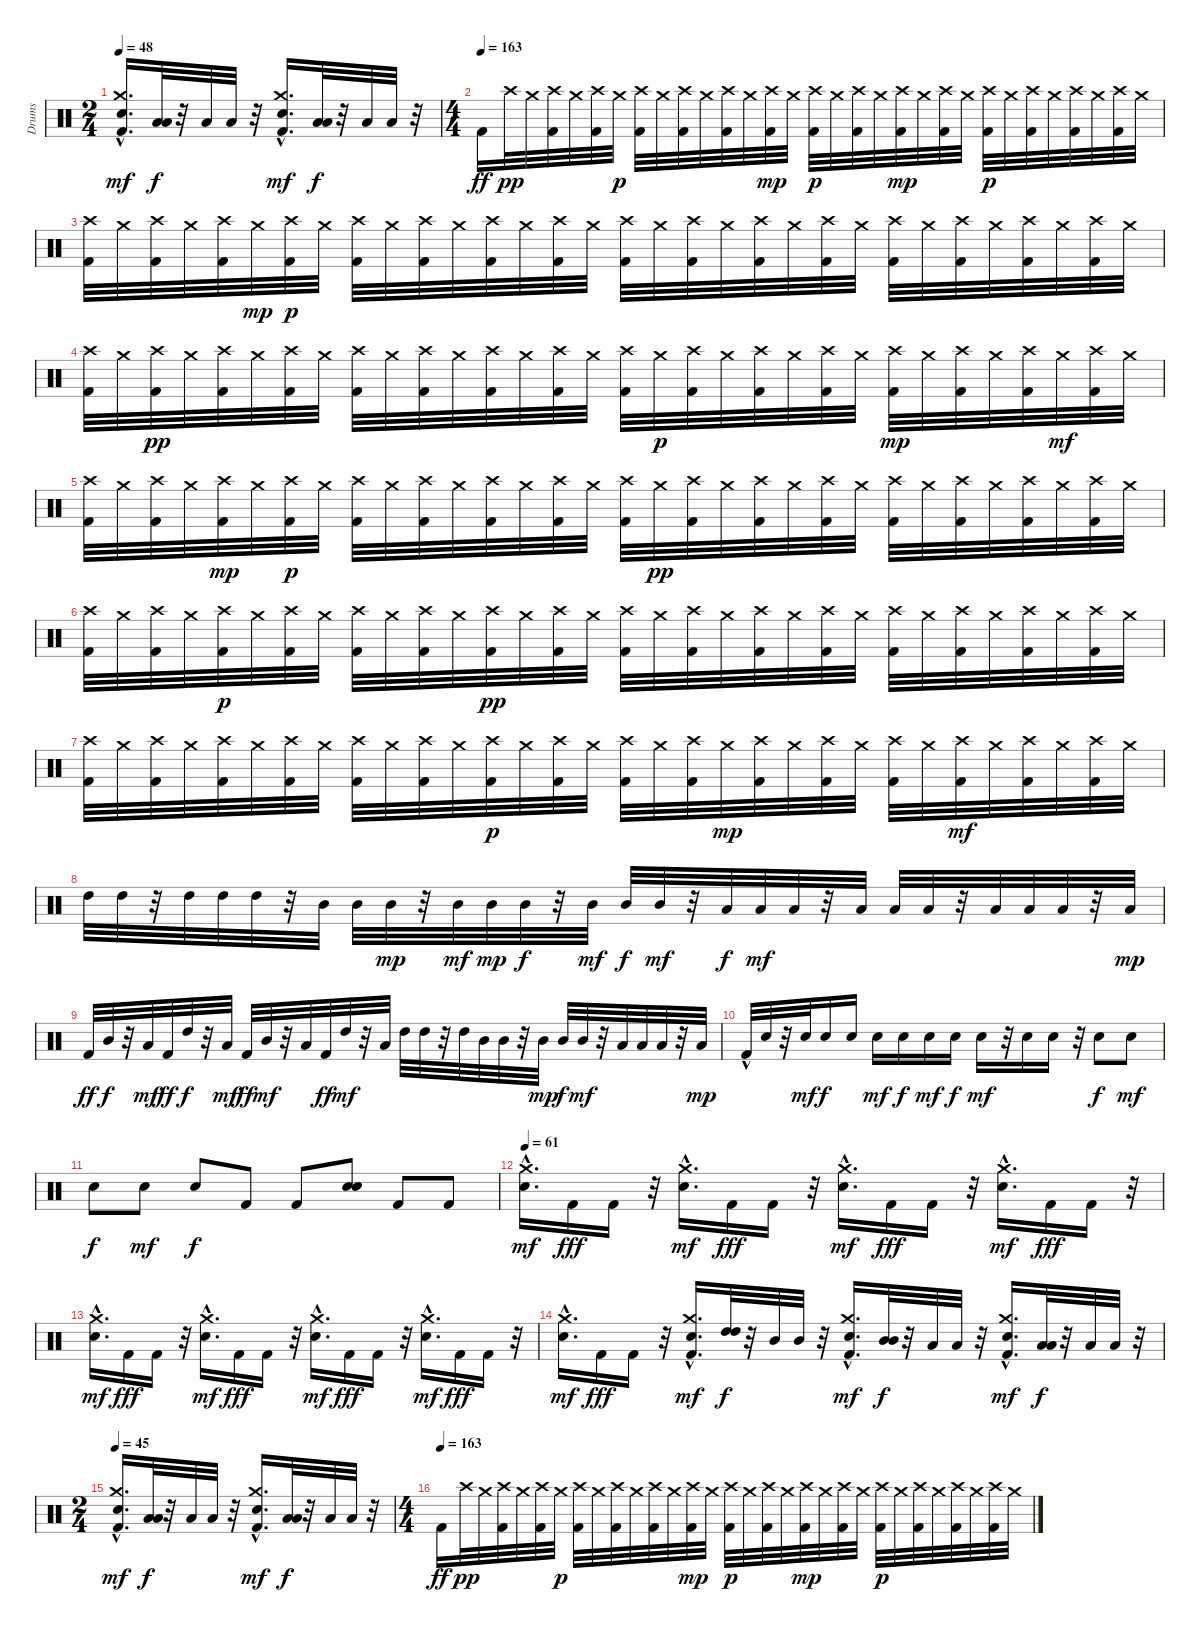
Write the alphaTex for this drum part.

\track ("Drums" "Drums") {instrument percussion}
\staff {score}
\articulation defaults
\ts (2 4)
\tempo 48
\clef neutral
\ks c
("Snare (hit) 2" "Crash medium (hit)" "Kick (hit) 2"{hac}).16{d dy mf} ("Low Tom (hit)" "Low Tom (hit)").32{dy f} r.32 "Low Tom (hit)".32 "Low Tom (hit)".32 r.32 ("Snare (hit) 2" "Crash medium (hit)" "Kick (hit) 2"{hac}).16{d dy mf} ("Low Tom (hit)" "Low Tom (hit)").32{dy f} r.32 "Low Tom (hit)".32 "Low Tom (hit)".32 r.32 |
\ts (4 4)
\tempo (163)
"Kick (hit) 2".16{dy ff} "Crash high (hit)".32{dy pp} "Crash medium (hit)".32 ("Crash high (hit)" "Kick (hit) 2").32 "Crash medium (hit)".32 ("Crash high (hit)" "Kick (hit) 2").32 "Crash medium (hit)".32{dy p} ("Crash high (hit)" "Kick (hit) 2").32 "Crash medium (hit)".32 ("Crash high (hit)" "Kick (hit) 2").32 "Crash medium (hit)".32 ("Crash high (hit)" "Kick (hit) 2").32 "Crash medium (hit)".32 ("Crash high (hit)" "Kick (hit) 2").32{dy mp} "Crash medium (hit)".32 ("Crash high (hit)" "Kick (hit) 2").32{dy p} "Crash medium (hit)".32 ("Crash high (hit)" "Kick (hit) 2").32 "Crash medium (hit)".32 ("Crash high (hit)" "Kick (hit) 2").32{dy mp} "Crash medium (hit)".32 ("Crash high (hit)" "Kick (hit) 2").32 "Crash medium (hit)".32 ("Crash high (hit)" "Kick (hit) 2").32{dy p} "Crash medium (hit)".32 ("Crash high (hit)" "Kick (hit) 2").32 "Crash medium (hit)".32 ("Crash high (hit)" "Kick (hit) 2").32 "Crash medium (hit)".32 ("Crash high (hit)" "Kick (hit) 2").32 "Crash medium (hit)".32 |
("Crash high (hit)" "Kick (hit) 2").32 "Crash medium (hit)".32 ("Crash high (hit)" "Kick (hit) 2").32 "Crash medium (hit)".32 ("Crash high (hit)" "Kick (hit) 2").32 "Crash medium (hit)".32{dy mp} ("Crash high (hit)" "Kick (hit) 2").32{dy p} "Crash medium (hit)".32 ("Crash high (hit)" "Kick (hit) 2").32 "Crash medium (hit)".32 ("Crash high (hit)" "Kick (hit) 2").32 "Crash medium (hit)".32 ("Crash high (hit)" "Kick (hit) 2").32 "Crash medium (hit)".32 ("Crash high (hit)" "Kick (hit) 2").32 "Crash medium (hit)".32 ("Crash high (hit)" "Kick (hit) 2").32 "Crash medium (hit)".32 ("Crash high (hit)" "Kick (hit) 2").32 "Crash medium (hit)".32 ("Crash high (hit)" "Kick (hit) 2").32 "Crash medium (hit)".32 ("Crash high (hit)" "Kick (hit) 2").32 "Crash medium (hit)".32 ("Crash high (hit)" "Kick (hit) 2").32 "Crash medium (hit)".32 ("Crash high (hit)" "Kick (hit) 2").32 "Crash medium (hit)".32 ("Crash high (hit)" "Kick (hit) 2").32 "Crash medium (hit)".32 ("Crash high (hit)" "Kick (hit) 2").32 "Crash medium (hit)".32 |
("Crash high (hit)" "Kick (hit) 2").32 "Crash medium (hit)".32 ("Crash high (hit)" "Kick (hit) 2").32{dy pp} "Crash medium (hit)".32 ("Crash high (hit)" "Kick (hit) 2").32 "Crash medium (hit)".32 ("Crash high (hit)" "Kick (hit) 2").32 "Crash medium (hit)".32 ("Crash high (hit)" "Kick (hit) 2").32 "Crash medium (hit)".32 ("Crash high (hit)" "Kick (hit) 2").32 "Crash medium (hit)".32 ("Crash high (hit)" "Kick (hit) 2").32 "Crash medium (hit)".32 ("Crash high (hit)" "Kick (hit) 2").32 "Crash medium (hit)".32 ("Crash high (hit)" "Kick (hit) 2").32 "Crash medium (hit)".32{dy p} ("Crash high (hit)" "Kick (hit) 2").32 "Crash medium (hit)".32 ("Crash high (hit)" "Kick (hit) 2").32 "Crash medium (hit)".32 ("Crash high (hit)" "Kick (hit) 2").32 "Crash medium (hit)".32 ("Crash high (hit)" "Kick (hit) 2").32{dy mp} "Crash medium (hit)".32 ("Crash high (hit)" "Kick (hit) 2").32 "Crash medium (hit)".32 ("Crash high (hit)" "Kick (hit) 2").32 "Crash medium (hit)".32{dy mf} ("Crash high (hit)" "Kick (hit) 2").32 "Crash medium (hit)".32 |
("Crash high (hit)" "Kick (hit) 2").32 "Crash medium (hit)".32 ("Crash high (hit)" "Kick (hit) 2").32 "Crash medium (hit)".32 ("Crash high (hit)" "Kick (hit) 2").32{dy mp} "Crash medium (hit)".32 ("Crash high (hit)" "Kick (hit) 2").32{dy p} "Crash medium (hit)".32 ("Crash high (hit)" "Kick (hit) 2").32 "Crash medium (hit)".32 ("Crash high (hit)" "Kick (hit) 2").32 "Crash medium (hit)".32 ("Crash high (hit)" "Kick (hit) 2").32 "Crash medium (hit)".32 ("Crash high (hit)" "Kick (hit) 2").32 "Crash medium (hit)".32 ("Crash high (hit)" "Kick (hit) 2").32 "Crash medium (hit)".32{dy pp} ("Crash high (hit)" "Kick (hit) 2").32 "Crash medium (hit)".32 ("Crash high (hit)" "Kick (hit) 2").32 "Crash medium (hit)".32 ("Crash high (hit)" "Kick (hit) 2").32 "Crash medium (hit)".32 ("Crash high (hit)" "Kick (hit) 2").32 "Crash medium (hit)".32 ("Crash high (hit)" "Kick (hit) 2").32 "Crash medium (hit)".32 ("Crash high (hit)" "Kick (hit) 2").32 "Crash medium (hit)".32 ("Crash high (hit)" "Kick (hit) 2").32 "Crash medium (hit)".32 |
("Crash high (hit)" "Kick (hit) 2").32 "Crash medium (hit)".32 ("Crash high (hit)" "Kick (hit) 2").32 "Crash medium (hit)".32 ("Crash high (hit)" "Kick (hit) 2").32{dy p} "Crash medium (hit)".32 ("Crash high (hit)" "Kick (hit) 2").32 "Crash medium (hit)".32 ("Crash high (hit)" "Kick (hit) 2").32 "Crash medium (hit)".32 ("Crash high (hit)" "Kick (hit) 2").32 "Crash medium (hit)".32 ("Crash high (hit)" "Kick (hit) 2").32{dy pp} "Crash medium (hit)".32 ("Crash high (hit)" "Kick (hit) 2").32 "Crash medium (hit)".32 ("Crash high (hit)" "Kick (hit) 2").32 "Crash medium (hit)".32 ("Crash high (hit)" "Kick (hit) 2").32 "Crash medium (hit)".32 ("Crash high (hit)" "Kick (hit) 2").32 "Crash medium (hit)".32 ("Crash high (hit)" "Kick (hit) 2").32 "Crash medium (hit)".32 ("Crash high (hit)" "Kick (hit) 2").32 "Crash medium (hit)".32 ("Crash high (hit)" "Kick (hit) 2").32 "Crash medium (hit)".32 ("Crash high (hit)" "Kick (hit) 2").32 "Crash medium (hit)".32 ("Crash high (hit)" "Kick (hit) 2").32 "Crash medium (hit)".32 |
("Crash high (hit)" "Kick (hit) 2").32 "Crash medium (hit)".32 ("Crash high (hit)" "Kick (hit) 2").32 "Crash medium (hit)".32 ("Crash high (hit)" "Kick (hit) 2").32 "Crash medium (hit)".32 ("Crash high (hit)" "Kick (hit) 2").32 "Crash medium (hit)".32 ("Crash high (hit)" "Kick (hit) 2").32 "Crash medium (hit)".32 ("Crash high (hit)" "Kick (hit) 2").32 "Crash medium (hit)".32 ("Crash high (hit)" "Kick (hit) 2").32{dy p} "Crash medium (hit)".32 ("Crash high (hit)" "Kick (hit) 2").32 "Crash medium (hit)".32 ("Crash high (hit)" "Kick (hit) 2").32 "Crash medium (hit)".32 ("Crash high (hit)" "Kick (hit) 2").32 "Crash medium (hit)".32{dy mp} ("Crash high (hit)" "Kick (hit) 2").32 "Crash medium (hit)".32 ("Crash high (hit)" "Kick (hit) 2").32 "Crash medium (hit)".32 ("Crash high (hit)" "Kick (hit) 2").32 "Crash medium (hit)".32 ("Crash high (hit)" "Kick (hit) 2").32{dy mf} "Crash medium (hit)".32 ("Crash high (hit)" "Kick (hit) 2").32 "Crash medium (hit)".32 ("Crash high (hit)" "Kick (hit) 2").32 "Crash medium (hit)".32 |
"High Tom (hit)".32 "High Tom (hit)".32 r.32 "High Tom (hit)".32 "High Tom (hit)".32 "High Tom (hit)".32 r.32 "Mid Tom (hit)".32 "Mid Tom (hit)".32 "Mid Tom (hit)".32{dy mp} r.32 "Mid Tom (hit)".32{dy mf} "Mid Tom (hit)".32{dy mp} "Mid Tom (hit)".32{dy f} r.32 "Mid Tom (hit)".32{dy mf} "Mid Tom (hit)".32{dy f} "Mid Tom (hit)".32{dy mf} r.32 "Low Tom (hit)".32{dy f} "Low Tom (hit)".32{dy mf} "Low Tom (hit)".32 r.32 "Low Tom (hit)".32 "Low Tom (hit)".32 "Low Tom (hit)".32 r.32 "Low Tom (hit)".32 "Low Tom (hit)".32 "Low Tom (hit)".32 r.32 "Low Tom (hit)".32{dy mp} |
"Kick (hit) 2".32{dy ff} "Mid Tom (hit)".32{dy f} r.32 "Low Tom (hit)".32{dy mf} "Kick (hit) 2".32{dy ff} "High Tom (hit)".32{dy f} r.32 "Low Tom (hit)".32{dy mf} "Kick (hit) 2".32{dy ff} "Mid Tom (hit)".32{dy mf} r.32 "Low Tom (hit)".32 "Kick (hit) 2".32{dy ff} "High Tom (hit)".32{dy mf} r.32 "Low Tom (hit)".32 "High Tom (hit)".32 "High Tom (hit)".32 r.32 "High Tom (hit)".32 "Mid Tom (hit)".32 "Mid Tom (hit)".32 r.32 "Mid Tom (hit)".32{dy mp} "Mid Tom (hit)".32{dy f} "Mid Tom (hit)".32{dy mf} r.32 "Low Tom (hit)".32 "Low Tom (hit)".32 "Low Tom (hit)".32 r.32 "Low Tom (hit)".32{dy mp} |
"Kick (hit) 2"{hac}.32 "Snare (hit) 2".32 r.32 "Snare (hit) 2".32{dy mf} "Snare (hit) 2".16{dy f} "Snare (hit) 2".16 "Snare (hit) 2".16{dy mf} "Snare (hit) 2".16{dy f} "Snare (hit) 2".16{dy mf} "Snare (hit) 2".16{dy f} "Snare (hit) 2".16{dy mf} r.32 "Snare (hit) 2".16 "Snare (hit) 2".16 r.32 "Snare (hit) 2".8{dy f} "Snare (hit) 2".8{dy mf} |
"Snare (hit) 2".8{dy f} "Snare (hit) 2".8{dy mf} "Snare (hit) 2".8{dy f} "Kick (hit) 2".8 "Kick (hit) 2".8 ("Snare (hit) 2" "Snare (hit) 2").8 "Kick (hit) 2".8 "Kick (hit) 2".8 |
\tempo 61
("Snare (hit) 2"{hac} "Crash medium (hit)"{hac}).16{d dy mf} "Kick (hit) 2".16{dy fff} "Kick (hit) 2".16 r.32 ("Snare (hit) 2"{hac} "Crash medium (hit)"{hac}).16{d dy mf} "Kick (hit) 2".16{dy fff} "Kick (hit) 2".16 r.32 ("Snare (hit) 2"{hac} "Crash medium (hit)"{hac}).16{d dy mf} "Kick (hit) 2".16{dy fff} "Kick (hit) 2".16 r.32 ("Snare (hit) 2"{hac} "Crash medium (hit)"{hac}).16{d dy mf} "Kick (hit) 2".16{dy fff} "Kick (hit) 2".16 r.32 |
("Snare (hit) 2"{hac} "Crash medium (hit)"{hac}).16{d dy mf} "Kick (hit) 2".16{dy fff} "Kick (hit) 2".16 r.32 ("Snare (hit) 2"{hac} "Crash medium (hit)"{hac}).16{d dy mf} "Kick (hit) 2".16{dy fff} "Kick (hit) 2".16 r.32 ("Snare (hit) 2"{hac} "Crash medium (hit)"{hac}).16{d dy mf} "Kick (hit) 2".16{dy fff} "Kick (hit) 2".16 r.32 ("Snare (hit) 2"{hac} "Crash medium (hit)"{hac}).16{d dy mf} "Kick (hit) 2".16{dy fff} "Kick (hit) 2".16 r.32 |
("Snare (hit) 2"{hac} "Crash medium (hit)"{hac}).16{d dy mf} "Kick (hit) 2".16{dy fff} "Kick (hit) 2".16 r.32 ("Snare (hit) 2" "Crash medium (hit)" "Kick (hit) 2"{hac}).16{d dy mf} ("High Tom (hit)" "High Tom (hit)").32{dy f} r.32 "Mid Tom (hit)".32 "Mid Tom (hit)".32 r.32 ("Snare (hit) 2" "Crash medium (hit)" "Kick (hit) 2"{hac}).16{d dy mf} ("Mid Tom (hit)" "Mid Tom (hit)").32{dy f} r.32 "Low Tom (hit)".32 "Low Tom (hit)".32 r.32 ("Snare (hit) 2" "Crash medium (hit)" "Kick (hit) 2"{hac}).16{d dy mf} ("Low Tom (hit)" "Low Tom (hit)").32{dy f} r.32 "Low Tom (hit)".32 "Low Tom (hit)".32 r.32 |
\ts (2 4)
\tempo 45
("Snare (hit) 2" "Crash medium (hit)" "Kick (hit) 2"{hac}).16{d dy mf} ("Low Tom (hit)" "Low Tom (hit)").32{dy f} r.32 "Low Tom (hit)".32 "Low Tom (hit)".32 r.32 ("Snare (hit) 2" "Crash medium (hit)" "Kick (hit) 2"{hac}).16{d dy mf} ("Low Tom (hit)" "Low Tom (hit)").32{dy f} r.32 "Low Tom (hit)".32 "Low Tom (hit)".32 r.32 |
\ts (4 4)
\tempo (163)
"Kick (hit) 2".16{dy ff} "Crash high (hit)".32{dy pp} "Crash medium (hit)".32 ("Crash high (hit)" "Kick (hit) 2").32 "Crash medium (hit)".32 ("Crash high (hit)" "Kick (hit) 2").32 "Crash medium (hit)".32{dy p} ("Crash high (hit)" "Kick (hit) 2").32 "Crash medium (hit)".32 ("Crash high (hit)" "Kick (hit) 2").32 "Crash medium (hit)".32 ("Crash high (hit)" "Kick (hit) 2").32 "Crash medium (hit)".32 ("Crash high (hit)" "Kick (hit) 2").32{dy mp} "Crash medium (hit)".32 ("Crash high (hit)" "Kick (hit) 2").32{dy p} "Crash medium (hit)".32 ("Crash high (hit)" "Kick (hit) 2").32 "Crash medium (hit)".32 ("Crash high (hit)" "Kick (hit) 2").32{dy mp} "Crash medium (hit)".32 ("Crash high (hit)" "Kick (hit) 2").32 "Crash medium (hit)".32 ("Crash high (hit)" "Kick (hit) 2").32{dy p} "Crash medium (hit)".32 ("Crash high (hit)" "Kick (hit) 2").32 "Crash medium (hit)".32 ("Crash high (hit)" "Kick (hit) 2").32 "Crash medium (hit)".32 ("Crash high (hit)" "Kick (hit) 2").32 "Crash medium (hit)".32
